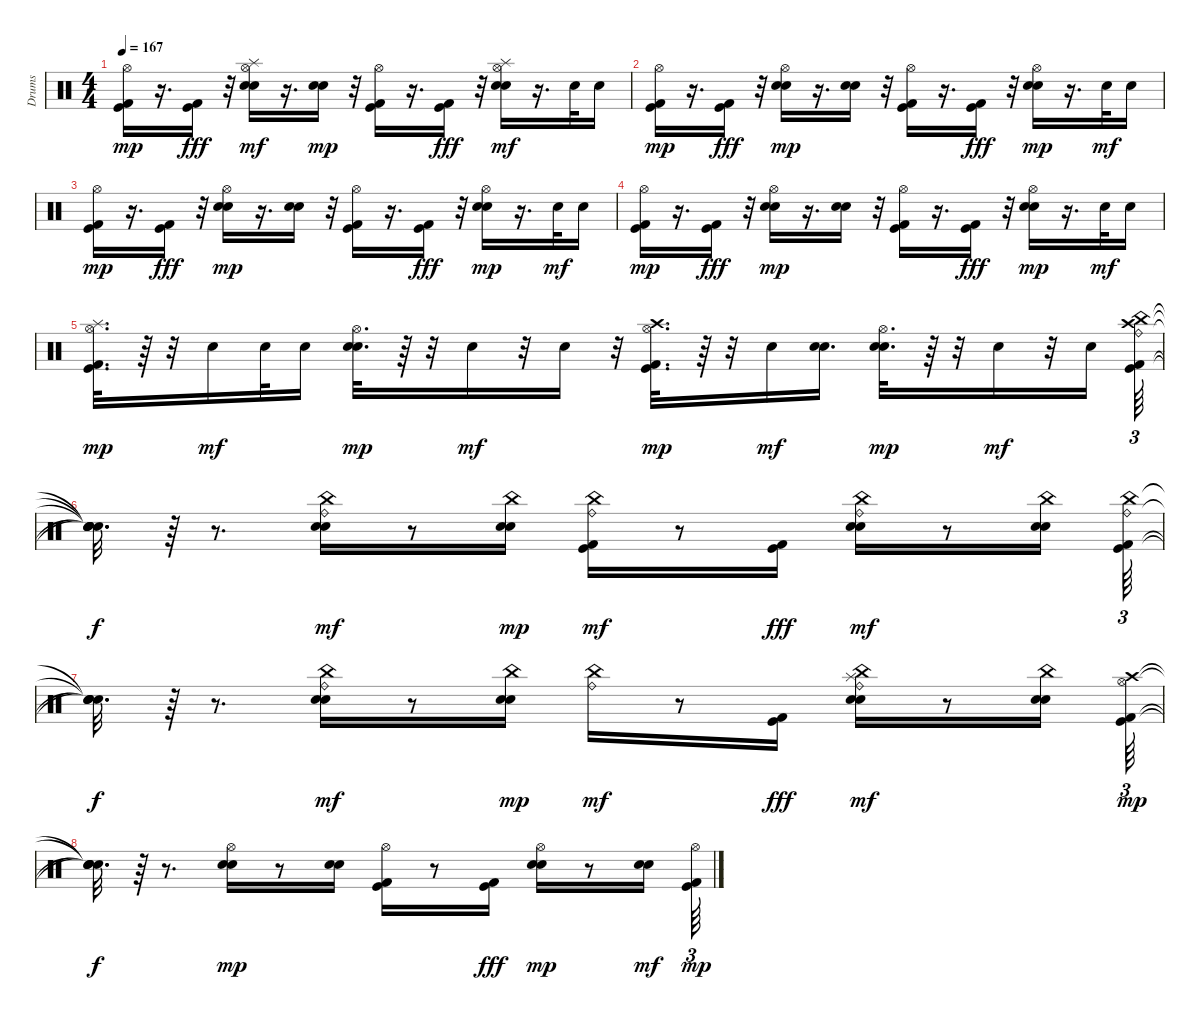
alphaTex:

\track ("Drums" "Drums") {instrument percussion}
\staff {score}
\articulation defaults
\ts (4 4)
\tempo 167
\clef neutral
\ks c
("Kick (hit) 2" "Kick (hit)" "Hi-Hat (open)").16{dy mp} r.16{d} ("Kick (hit) 2" "Kick (hit)").16{dy fff} r.32 ("Snare (hit) 2" "Hand Clap (hit)" "Hi-Hat (open)" "Splash (hit)").16{dy mf} r.16{d} ("Snare (hit) 2" "Hand Clap (hit)").16{dy mp} r.32 ("Kick (hit) 2" "Kick (hit)" "Hi-Hat (open)").16 r.16{d} ("Kick (hit) 2" "Kick (hit)").16{dy fff} r.32 ("Snare (hit) 2" "Hand Clap (hit)" "Hi-Hat (open)" "Splash (hit)").16{dy mf} r.16{d} "Snare (hit) 2".32 "Hand Clap (hit)".16 |
("Kick (hit) 2" "Kick (hit)" "Hi-Hat (open)").16{dy mp} r.16{d} ("Kick (hit) 2" "Kick (hit)").16{dy fff} r.32 ("Snare (hit) 2" "Hand Clap (hit)" "Hi-Hat (open)").16{dy mp} r.16{d} ("Snare (hit) 2" "Hand Clap (hit)").16 r.32 ("Kick (hit) 2" "Kick (hit)" "Hi-Hat (open)").16 r.16{d} ("Kick (hit) 2" "Kick (hit)").16{dy fff} r.32 ("Snare (hit) 2" "Hand Clap (hit)" "Hi-Hat (open)").16{dy mp} r.16{d} "Snare (hit) 2".32{dy mf} "Hand Clap (hit)".16 |
("Kick (hit) 2" "Kick (hit)" "Hi-Hat (open)").16{dy mp} r.16{d} ("Kick (hit) 2" "Kick (hit)").16{dy fff} r.32 ("Snare (hit) 2" "Hand Clap (hit)" "Hi-Hat (open)").16{dy mp} r.16{d} ("Snare (hit) 2" "Hand Clap (hit)").16 r.32 ("Kick (hit) 2" "Kick (hit)" "Hi-Hat (open)").16 r.16{d} ("Kick (hit) 2" "Kick (hit)").16{dy fff} r.32 ("Snare (hit) 2" "Hand Clap (hit)" "Hi-Hat (open)").16{dy mp} r.16{d} "Snare (hit) 2".32{dy mf} "Hand Clap (hit)".16 |
("Kick (hit) 2" "Kick (hit)" "Hi-Hat (open)").16{dy mp} r.16{d} ("Kick (hit) 2" "Kick (hit)").16{dy fff} r.32 ("Snare (hit) 2" "Hand Clap (hit)" "Hi-Hat (open)").16{dy mp} r.16{d} ("Snare (hit) 2" "Hand Clap (hit)").16 r.32 ("Kick (hit) 2" "Kick (hit)" "Hi-Hat (open)").16 r.16{d} ("Kick (hit) 2" "Kick (hit)").16{dy fff} r.32 ("Snare (hit) 2" "Hand Clap (hit)" "Hi-Hat (open)").16{dy mp} r.16{d} "Snare (hit) 2".32{dy mf} "Hand Clap (hit)".16 |
("Kick (hit) 2" "Kick (hit)" "Splash (hit)" "Hi-Hat (open)").32{d dy mp} r.64 r.32 "Snare (hit) 2".16{dy mf} "Snare (hit) 2".32 "Snare (hit) 2".16 ("Snare (hit) 2" "Hand Clap (hit)" "Hi-Hat (open)").32{d dy mp} r.64 r.32 "Snare (hit) 2".16{dy mf} r.32 "Snare (hit) 2".16 r.32 ("Kick (hit) 2" "Kick (hit)" "Crash high (hit)" "Hi-Hat (open)").32{d dy mp} r.64 r.32 "Snare (hit) 2".16{dy mf} ("Snare (hit) 2" "Snare (hit) 2").16{d} ("Hand Clap (hit)" "Snare (hit) 2" "Hi-Hat (open)").32{d dy mp} r.64 r.32 "Snare (hit) 2".16{dy mf} r.32 "Snare (hit) 2".16 ("Kick (hit) 2" "Kick (hit)" "China (hit)" "Ride (bell)" "Crash high (hit)").64{tu (3 2)} |
("Snare (hit)"{t} "Snare (hit)"{t} "Snare (hit)"{t} "Snare (hit)"{t} "Snare (hit)"{t}).32{d dy f} r.64 r.8{d} ("Snare (hit) 2" "Hand Clap (hit)" "China (hit)" "Ride (bell)").16{dy mf} r.8 ("Snare (hit) 2" "Hand Clap (hit)" "China (hit)").16{dy mp} ("Kick (hit) 2" "Kick (hit)" "China (hit)" "Ride (bell)").16{dy mf} r.8 ("Kick (hit) 2" "Kick (hit)").16{dy fff} ("Snare (hit) 2" "Hand Clap (hit)" "China (hit)" "Ride (bell)").16{dy mf} r.8 ("Snare (hit) 2" "China (hit)" "Hand Clap (hit)").16 ("Kick (hit) 2" "Kick (hit)" "China (hit)" "Ride (bell)").64{tu (3 2)} |
("Snare (hit)"{t} "Snare (hit)"{t} "Snare (hit)"{t} "Snare (hit)"{t}).32{d dy f} r.64 r.8{d} ("Snare (hit) 2" "Hand Clap (hit)" "China (hit)" "Ride (bell)").16{dy mf} r.8 ("Snare (hit) 2" "Hand Clap (hit)" "China (hit)").16{dy mp} ("China (hit)" "Ride (bell)").16{dy mf} r.8 ("Kick (hit) 2" "Kick (hit)").16{dy fff} ("Snare (hit) 2" "Hand Clap (hit)" "China (hit)" "Ride (bell)" "Splash (hit)").16{dy mf} r.8 ("Snare (hit) 2" "China (hit)" "Hand Clap (hit)").16 ("Kick (hit) 2" "Kick (hit)" "Crash high (hit)" "Hi-Hat (open)").64{tu (3 2) dy mp} |
("Snare (hit)"{t} "Snare (hit)"{t} "Snare (hit)"{t} "Snare (hit)"{t}).32{d dy f} r.64 r.8{d} ("Snare (hit) 2" "Hand Clap (hit)" "Hi-Hat (open)").16{dy mp} r.8 ("Snare (hit) 2" "Hand Clap (hit)").16 ("Kick (hit) 2" "Kick (hit)" "Hi-Hat (open)").16 r.8 ("Kick (hit) 2" "Kick (hit)").16{dy fff} ("Snare (hit) 2" "Hand Clap (hit)" "Hi-Hat (open)").16{dy mp} r.8 ("Snare (hit) 2" "Hand Clap (hit)").16{dy mf} ("Kick (hit) 2" "Kick (hit)" "Hi-Hat (open)").64{tu (3 2) dy mp}
